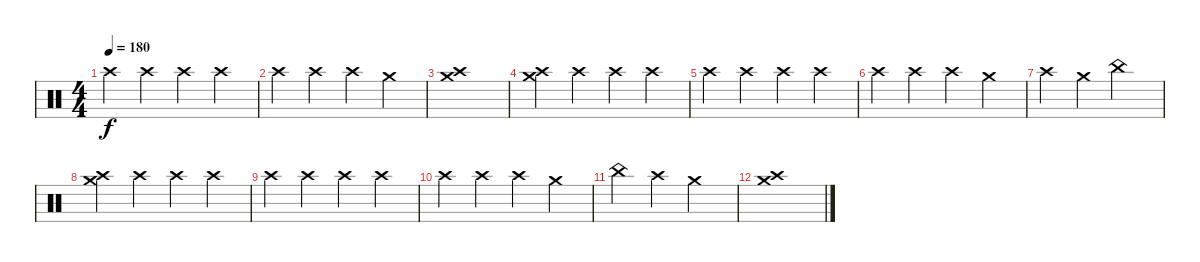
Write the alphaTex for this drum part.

\track "" {instrument percussion}
\staff {score}
\articulation defaults
\ts (4 4)
\tempo 180
\clef neutral
\ks c "Crash high (hit)".4{dy f} "Crash high (hit)".4 "Crash high (hit)".4 "Crash high (hit)".4
|
"Crash high (hit)".4 "Crash high (hit)".4 "Crash high (hit)".4 "Crash medium (hit)".4 |
("Crash medium (hit)" "Crash high (hit)").1 |
("Crash medium (hit)" "Crash high (hit)").4 "Crash high (hit)".4 "Crash high (hit)".4 "Crash high (hit)".4 |
"Crash high (hit)".4 "Crash high (hit)".4 "Crash high (hit)".4 "Crash high (hit)".4 |
"Crash high (hit)".4 "Crash high (hit)".4 "Crash high (hit)".4 "Crash medium (hit)".4 |
"Crash high (hit)".4 "Crash medium (hit)".4 "China (hit)".2 |
("Crash medium (hit)" "Crash high (hit)").4 "Crash high (hit)".4 "Crash high (hit)".4 "Crash high (hit)".4 |
"Crash high (hit)".4 "Crash high (hit)".4 "Crash high (hit)".4 "Crash high (hit)".4 |
"Crash high (hit)".4 "Crash high (hit)".4 "Crash high (hit)".4 "Crash medium (hit)".4 |
"China (hit)".4 "Crash high (hit)".4 "Crash medium (hit)".2 |
("Crash medium (hit)" "Crash high (hit)").1
